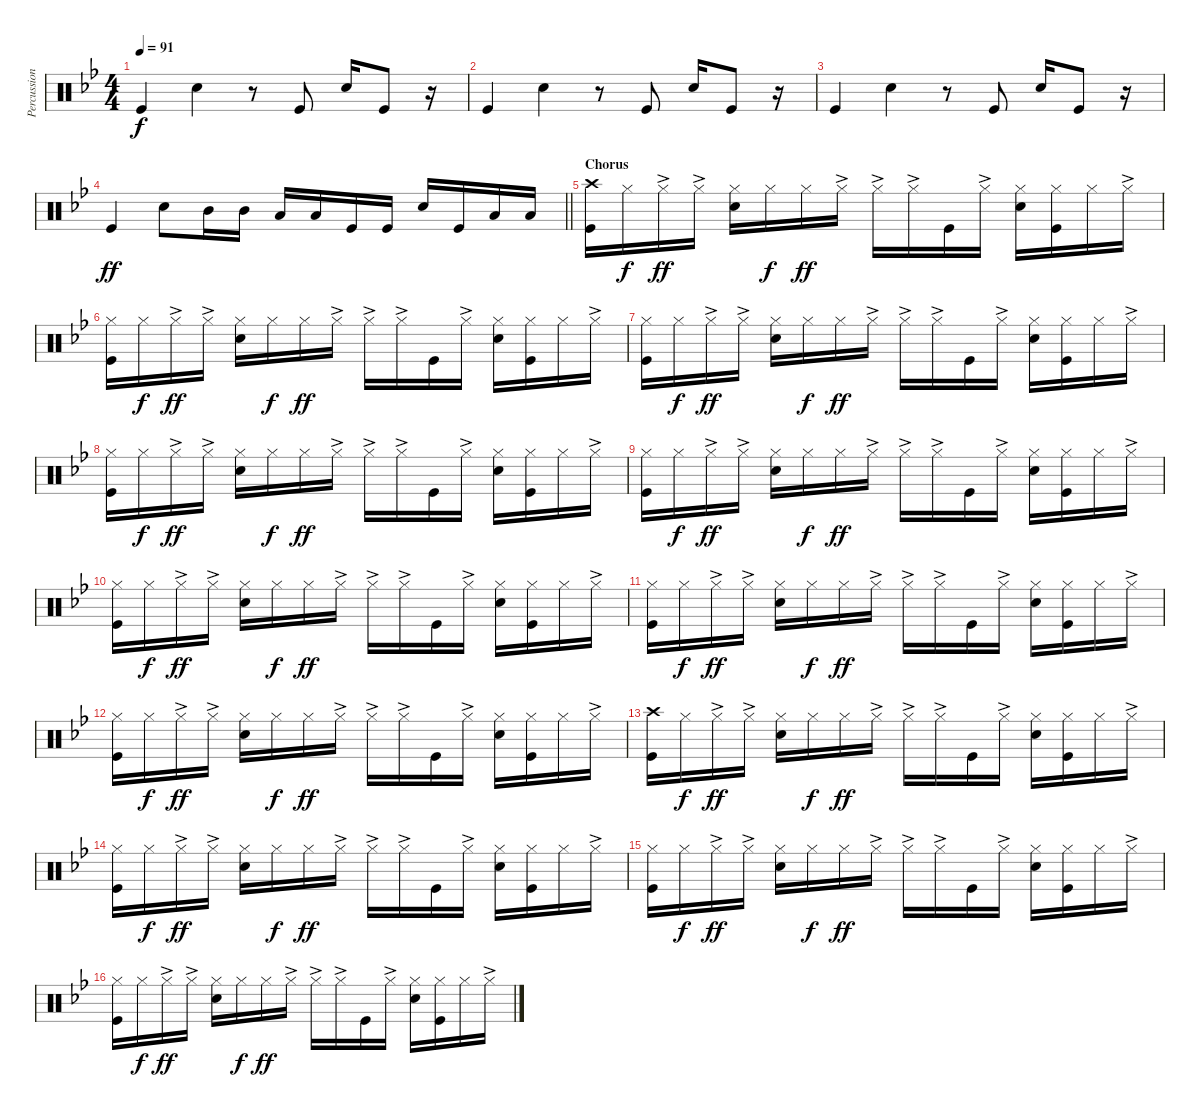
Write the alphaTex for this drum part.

\track ("Percussion" "Percussion") {instrument percussion}
\staff {score}
\articulation defaults
\ts (4 4)
\tempo 91
\clef neutral
\ks bb "Kick (hit)".4{dy f} "Electric Snare (hit)".4
r.8 "Kick (hit)".8 "Electric Snare (hit)".16 "Kick (hit)".8 r.16 |
"Kick (hit)".4 "Electric Snare (hit)".4 r.8 "Kick (hit)".8 "Electric Snare (hit)".16 "Kick (hit)".8 r.16 |
"Kick (hit)".4 "Electric Snare (hit)".4 r.8 "Kick (hit)".8 "Electric Snare (hit)".16 "Kick (hit)".8 r.16 |
\barLineRight lightlight "Kick (hit)".4{dy ff} "Electric Snare (hit)".8 "Mid Tom (hit)".16 "Mid Tom (hit)".16 "Low Tom (hit)".16 "Low Tom (hit)".16 "Kick (hit)".16 "Kick (hit)".16 "Electric Snare (hit)".16 "Kick (hit)".16 "Low Floor Tom (hit)".16 "Low Floor Tom (hit)".16
|
\section ("" "Chorus")
("Crash high (hit)" "Kick (hit)").16 "Hi-Hat (closed)".16{dy f} "Hi-Hat (closed)"{ac}.16{dy ff} "Hi-Hat (closed)"{ac}.16 ("Hi-Hat (closed)" "Snare (hit) 2").16 "Hi-Hat (closed)".16{dy f} "Hi-Hat (closed)".16{dy ff} "Hi-Hat (closed)"{ac}.16 "Hi-Hat (closed)"{ac}.16 "Hi-Hat (closed)"{ac}.16 "Kick (hit)".16 "Hi-Hat (closed)"{ac}.16 ("Hi-Hat (closed)" "Snare (hit) 2").16 ("Hi-Hat (closed)" "Kick (hit)").16 "Hi-Hat (closed)".16 "Hi-Hat (closed)"{ac}.16 |
("Hi-Hat (closed)" "Kick (hit)").16 "Hi-Hat (closed)".16{dy f} "Hi-Hat (closed)"{ac}.16{dy ff} "Hi-Hat (closed)"{ac}.16 ("Hi-Hat (closed)" "Snare (hit) 2").16 "Hi-Hat (closed)".16{dy f} "Hi-Hat (closed)".16{dy ff} "Hi-Hat (closed)"{ac}.16 "Hi-Hat (closed)"{ac}.16 "Hi-Hat (closed)"{ac}.16 "Kick (hit)".16 "Hi-Hat (closed)"{ac}.16 ("Hi-Hat (closed)" "Snare (hit) 2").16 ("Hi-Hat (closed)" "Kick (hit)").16 "Hi-Hat (closed)".16 "Hi-Hat (closed)"{ac}.16 |
("Hi-Hat (closed)" "Kick (hit)").16 "Hi-Hat (closed)".16{dy f} "Hi-Hat (closed)"{ac}.16{dy ff} "Hi-Hat (closed)"{ac}.16 ("Hi-Hat (closed)" "Snare (hit) 2").16 "Hi-Hat (closed)".16{dy f} "Hi-Hat (closed)".16{dy ff} "Hi-Hat (closed)"{ac}.16 "Hi-Hat (closed)"{ac}.16 "Hi-Hat (closed)"{ac}.16 "Kick (hit)".16 "Hi-Hat (closed)"{ac}.16 ("Hi-Hat (closed)" "Snare (hit) 2").16 ("Hi-Hat (closed)" "Kick (hit)").16 "Hi-Hat (closed)".16 "Hi-Hat (closed)"{ac}.16 |
("Hi-Hat (closed)" "Kick (hit)").16 "Hi-Hat (closed)".16{dy f} "Hi-Hat (closed)"{ac}.16{dy ff} "Hi-Hat (closed)"{ac}.16 ("Hi-Hat (closed)" "Snare (hit) 2").16 "Hi-Hat (closed)".16{dy f} "Hi-Hat (closed)".16{dy ff} "Hi-Hat (closed)"{ac}.16 "Hi-Hat (closed)"{ac}.16 "Hi-Hat (closed)"{ac}.16 "Kick (hit)".16 "Hi-Hat (closed)"{ac}.16 ("Hi-Hat (closed)" "Snare (hit) 2").16 ("Hi-Hat (closed)" "Kick (hit)").16 "Hi-Hat (closed)".16 "Hi-Hat (closed)"{ac}.16 |
("Hi-Hat (closed)" "Kick (hit)").16 "Hi-Hat (closed)".16{dy f} "Hi-Hat (closed)"{ac}.16{dy ff} "Hi-Hat (closed)"{ac}.16 ("Hi-Hat (closed)" "Snare (hit) 2").16 "Hi-Hat (closed)".16{dy f} "Hi-Hat (closed)".16{dy ff} "Hi-Hat (closed)"{ac}.16 "Hi-Hat (closed)"{ac}.16 "Hi-Hat (closed)"{ac}.16 "Kick (hit)".16 "Hi-Hat (closed)"{ac}.16 ("Hi-Hat (closed)" "Snare (hit) 2").16 ("Hi-Hat (closed)" "Kick (hit)").16 "Hi-Hat (closed)".16 "Hi-Hat (closed)"{ac}.16 |
("Hi-Hat (closed)" "Kick (hit)").16 "Hi-Hat (closed)".16{dy f} "Hi-Hat (closed)"{ac}.16{dy ff} "Hi-Hat (closed)"{ac}.16 ("Hi-Hat (closed)" "Snare (hit) 2").16 "Hi-Hat (closed)".16{dy f} "Hi-Hat (closed)".16{dy ff} "Hi-Hat (closed)"{ac}.16 "Hi-Hat (closed)"{ac}.16 "Hi-Hat (closed)"{ac}.16 "Kick (hit)".16 "Hi-Hat (closed)"{ac}.16 ("Hi-Hat (closed)" "Snare (hit) 2").16 ("Hi-Hat (closed)" "Kick (hit)").16 "Hi-Hat (closed)".16 "Hi-Hat (closed)"{ac}.16 |
("Hi-Hat (closed)" "Kick (hit)").16 "Hi-Hat (closed)".16{dy f} "Hi-Hat (closed)"{ac}.16{dy ff} "Hi-Hat (closed)"{ac}.16 ("Hi-Hat (closed)" "Snare (hit) 2").16 "Hi-Hat (closed)".16{dy f} "Hi-Hat (closed)".16{dy ff} "Hi-Hat (closed)"{ac}.16 "Hi-Hat (closed)"{ac}.16 "Hi-Hat (closed)"{ac}.16 "Kick (hit)".16 "Hi-Hat (closed)"{ac}.16 ("Hi-Hat (closed)" "Snare (hit) 2").16 ("Hi-Hat (closed)" "Kick (hit)").16 "Hi-Hat (closed)".16 "Hi-Hat (closed)"{ac}.16 |
("Hi-Hat (closed)" "Kick (hit)").16 "Hi-Hat (closed)".16{dy f} "Hi-Hat (closed)"{ac}.16{dy ff} "Hi-Hat (closed)"{ac}.16 ("Hi-Hat (closed)" "Snare (hit) 2").16 "Hi-Hat (closed)".16{dy f} "Hi-Hat (closed)".16{dy ff} "Hi-Hat (closed)"{ac}.16 "Hi-Hat (closed)"{ac}.16 "Hi-Hat (closed)"{ac}.16 "Kick (hit)".16 "Hi-Hat (closed)"{ac}.16 ("Hi-Hat (closed)" "Snare (hit) 2").16 ("Hi-Hat (closed)" "Kick (hit)").16 "Hi-Hat (closed)".16 "Hi-Hat (closed)"{ac}.16 |
("Crash high (hit)" "Kick (hit)").16 "Hi-Hat (closed)".16{dy f} "Hi-Hat (closed)"{ac}.16{dy ff} "Hi-Hat (closed)"{ac}.16 ("Hi-Hat (closed)" "Snare (hit) 2").16 "Hi-Hat (closed)".16{dy f} "Hi-Hat (closed)".16{dy ff} "Hi-Hat (closed)"{ac}.16 "Hi-Hat (closed)"{ac}.16 "Hi-Hat (closed)"{ac}.16 "Kick (hit)".16 "Hi-Hat (closed)"{ac}.16 ("Hi-Hat (closed)" "Snare (hit) 2").16 ("Hi-Hat (closed)" "Kick (hit)").16 "Hi-Hat (closed)".16 "Hi-Hat (closed)"{ac}.16 |
("Hi-Hat (closed)" "Kick (hit)").16 "Hi-Hat (closed)".16{dy f} "Hi-Hat (closed)"{ac}.16{dy ff} "Hi-Hat (closed)"{ac}.16 ("Hi-Hat (closed)" "Snare (hit) 2").16 "Hi-Hat (closed)".16{dy f} "Hi-Hat (closed)".16{dy ff} "Hi-Hat (closed)"{ac}.16 "Hi-Hat (closed)"{ac}.16 "Hi-Hat (closed)"{ac}.16 "Kick (hit)".16 "Hi-Hat (closed)"{ac}.16 ("Hi-Hat (closed)" "Snare (hit) 2").16 ("Hi-Hat (closed)" "Kick (hit)").16 "Hi-Hat (closed)".16 "Hi-Hat (closed)"{ac}.16 |
("Hi-Hat (closed)" "Kick (hit)").16 "Hi-Hat (closed)".16{dy f} "Hi-Hat (closed)"{ac}.16{dy ff} "Hi-Hat (closed)"{ac}.16 ("Hi-Hat (closed)" "Snare (hit) 2").16 "Hi-Hat (closed)".16{dy f} "Hi-Hat (closed)".16{dy ff} "Hi-Hat (closed)"{ac}.16 "Hi-Hat (closed)"{ac}.16 "Hi-Hat (closed)"{ac}.16 "Kick (hit)".16 "Hi-Hat (closed)"{ac}.16 ("Hi-Hat (closed)" "Snare (hit) 2").16 ("Hi-Hat (closed)" "Kick (hit)").16 "Hi-Hat (closed)".16 "Hi-Hat (closed)"{ac}.16 |
("Hi-Hat (closed)" "Kick (hit)").16 "Hi-Hat (closed)".16{dy f} "Hi-Hat (closed)"{ac}.16{dy ff} "Hi-Hat (closed)"{ac}.16 ("Hi-Hat (closed)" "Snare (hit) 2").16 "Hi-Hat (closed)".16{dy f} "Hi-Hat (closed)".16{dy ff} "Hi-Hat (closed)"{ac}.16 "Hi-Hat (closed)"{ac}.16 "Hi-Hat (closed)"{ac}.16 "Kick (hit)".16 "Hi-Hat (closed)"{ac}.16 ("Hi-Hat (closed)" "Snare (hit) 2").16 ("Hi-Hat (closed)" "Kick (hit)").16 "Hi-Hat (closed)".16 "Hi-Hat (closed)"{ac}.16
